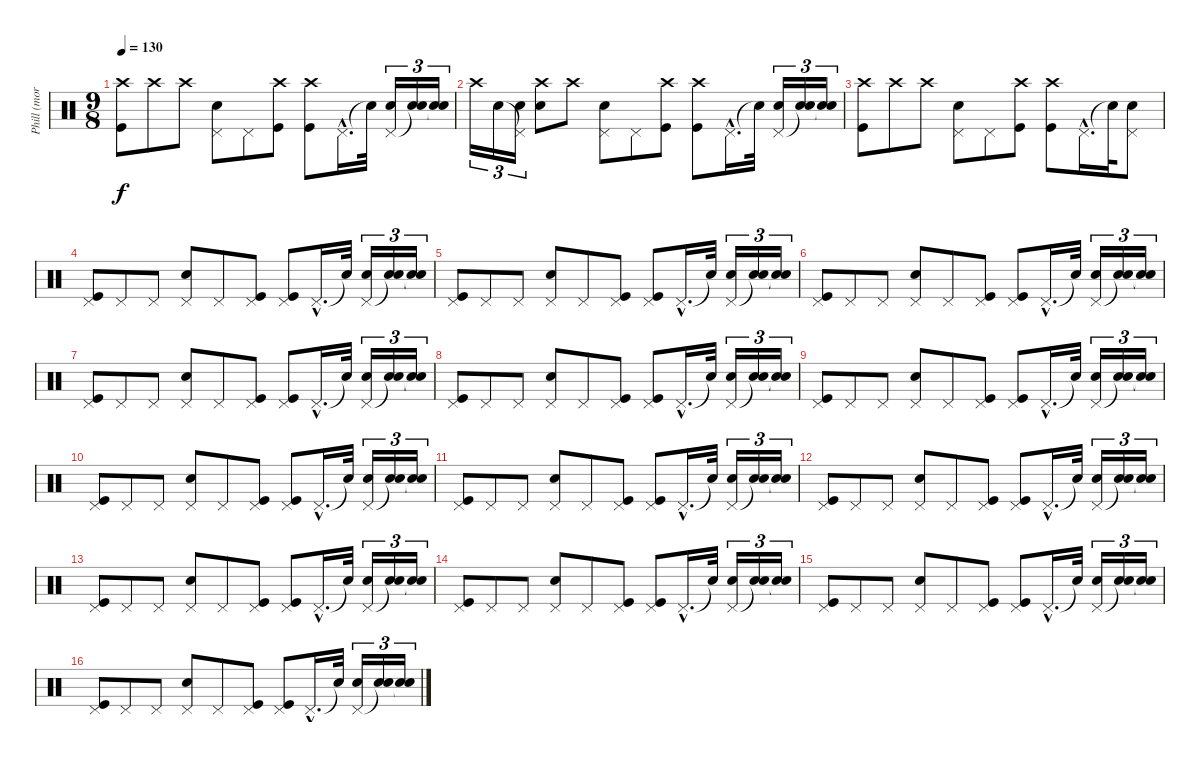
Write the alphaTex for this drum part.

\track ("Phill (mornig bell)" "Phill (mor") {instrument percussion}
\staff {score}
\articulation defaults
\ts (9 8)
\tempo 130
\clef neutral
\ks c
("Crash high (hit)" "Kick (hit)").8{dy f} "Crash high (hit)".8 "Crash high (hit)".8 ("Pedal Hi-Hat (hit)" "Snare (hit) 2").8 "Pedal Hi-Hat (hit)".8 ("Crash high (hit)" "Kick (hit)").8 ("Crash high (hit)" "Kick (hit)").8 "Pedal Hi-Hat (hit)"{hac}.16{d} "Snare (hit)"{t}.32 ("Pedal Hi-Hat (hit)" "Snare (hit) 2").16{tu (3 2)} ("Snare (hit)"{t} "Snare (hit) 2").16{tu (3 2)} ("Snare (hit)"{t} "Snare (hit) 2").16{tu (3 2)} |
"Crash high (hit)".16{tu (3 2)} "Snare (hit) 2".16{tu (3 2)} ("Pedal Hi-Hat (hit)"{t} "Snare (hit) 2").16{tu (3 2)} ("Crash high (hit)" "Snare (hit) 2").8 "Crash high (hit)".8 ("Pedal Hi-Hat (hit)" "Snare (hit) 2").8 "Pedal Hi-Hat (hit)".8 ("Crash high (hit)" "Kick (hit)").8 ("Crash high (hit)" "Kick (hit)").8 "Pedal Hi-Hat (hit)"{hac}.16{d} "Snare (hit)"{t}.32 ("Pedal Hi-Hat (hit)" "Snare (hit) 2").16{tu (3 2)} ("Snare (hit)"{t} "Snare (hit) 2").16{tu (3 2)} ("Snare (hit)"{t} "Snare (hit) 2").16{tu (3 2)} |
("Crash high (hit)" "Kick (hit)").8 "Crash high (hit)".8 "Crash high (hit)".8 ("Pedal Hi-Hat (hit)" "Snare (hit) 2").8 "Pedal Hi-Hat (hit)".8 ("Crash high (hit)" "Kick (hit)").8 ("Crash high (hit)" "Kick (hit)").8 "Pedal Hi-Hat (hit)"{hac}.16{d} "Snare (hit)"{t}.32 ("Pedal Hi-Hat (hit)" "Snare (hit) 2").8 |
("Pedal Hi-Hat (hit)" "Kick (hit)").8 "Pedal Hi-Hat (hit)".8 "Pedal Hi-Hat (hit)".8 ("Pedal Hi-Hat (hit)" "Snare (hit) 2").8 "Pedal Hi-Hat (hit)".8 ("Pedal Hi-Hat (hit)" "Kick (hit)").8 ("Pedal Hi-Hat (hit)" "Kick (hit)").8 "Pedal Hi-Hat (hit)"{hac}.16{d} "Snare (hit)"{t}.32 ("Pedal Hi-Hat (hit)" "Snare (hit) 2").16{tu (3 2)} ("Snare (hit)"{t} "Snare (hit) 2").16{tu (3 2)} ("Snare (hit)"{t} "Snare (hit) 2").16{tu (3 2)} |
("Pedal Hi-Hat (hit)" "Kick (hit)").8 "Pedal Hi-Hat (hit)".8 "Pedal Hi-Hat (hit)".8 ("Pedal Hi-Hat (hit)" "Snare (hit) 2").8 "Pedal Hi-Hat (hit)".8 ("Pedal Hi-Hat (hit)" "Kick (hit)").8 ("Pedal Hi-Hat (hit)" "Kick (hit)").8 "Pedal Hi-Hat (hit)"{hac}.16{d} "Snare (hit)"{t}.32 ("Pedal Hi-Hat (hit)" "Snare (hit) 2").16{tu (3 2)} ("Snare (hit)"{t} "Snare (hit) 2").16{tu (3 2)} ("Snare (hit)"{t} "Snare (hit) 2").16{tu (3 2)} |
("Pedal Hi-Hat (hit)" "Kick (hit)").8 "Pedal Hi-Hat (hit)".8 "Pedal Hi-Hat (hit)".8 ("Pedal Hi-Hat (hit)" "Snare (hit) 2").8 "Pedal Hi-Hat (hit)".8 ("Pedal Hi-Hat (hit)" "Kick (hit)").8 ("Pedal Hi-Hat (hit)" "Kick (hit)").8 "Pedal Hi-Hat (hit)"{hac}.16{d} "Snare (hit)"{t}.32 ("Pedal Hi-Hat (hit)" "Snare (hit) 2").16{tu (3 2)} ("Snare (hit)"{t} "Snare (hit) 2").16{tu (3 2)} ("Snare (hit)"{t} "Snare (hit) 2").16{tu (3 2)} |
("Pedal Hi-Hat (hit)" "Kick (hit)").8 "Pedal Hi-Hat (hit)".8 "Pedal Hi-Hat (hit)".8 ("Pedal Hi-Hat (hit)" "Snare (hit) 2").8 "Pedal Hi-Hat (hit)".8 ("Pedal Hi-Hat (hit)" "Kick (hit)").8 ("Pedal Hi-Hat (hit)" "Kick (hit)").8 "Pedal Hi-Hat (hit)"{hac}.16{d} "Snare (hit)"{t}.32 ("Pedal Hi-Hat (hit)" "Snare (hit) 2").16{tu (3 2)} ("Snare (hit)"{t} "Snare (hit) 2").16{tu (3 2)} ("Snare (hit)"{t} "Snare (hit) 2").16{tu (3 2)} |
("Pedal Hi-Hat (hit)" "Kick (hit)").8 "Pedal Hi-Hat (hit)".8 "Pedal Hi-Hat (hit)".8 ("Pedal Hi-Hat (hit)" "Snare (hit) 2").8 "Pedal Hi-Hat (hit)".8 ("Pedal Hi-Hat (hit)" "Kick (hit)").8 ("Pedal Hi-Hat (hit)" "Kick (hit)").8 "Pedal Hi-Hat (hit)"{hac}.16{d} "Snare (hit)"{t}.32 ("Pedal Hi-Hat (hit)" "Snare (hit) 2").16{tu (3 2)} ("Snare (hit)"{t} "Snare (hit) 2").16{tu (3 2)} ("Snare (hit)"{t} "Snare (hit) 2").16{tu (3 2)} |
("Pedal Hi-Hat (hit)" "Kick (hit)").8 "Pedal Hi-Hat (hit)".8 "Pedal Hi-Hat (hit)".8 ("Pedal Hi-Hat (hit)" "Snare (hit) 2").8 "Pedal Hi-Hat (hit)".8 ("Pedal Hi-Hat (hit)" "Kick (hit)").8 ("Pedal Hi-Hat (hit)" "Kick (hit)").8 "Pedal Hi-Hat (hit)"{hac}.16{d} "Snare (hit)"{t}.32 ("Pedal Hi-Hat (hit)" "Snare (hit) 2").16{tu (3 2)} ("Snare (hit)"{t} "Snare (hit) 2").16{tu (3 2)} ("Snare (hit)"{t} "Snare (hit) 2").16{tu (3 2)} |
("Pedal Hi-Hat (hit)" "Kick (hit)").8 "Pedal Hi-Hat (hit)".8 "Pedal Hi-Hat (hit)".8 ("Pedal Hi-Hat (hit)" "Snare (hit) 2").8 "Pedal Hi-Hat (hit)".8 ("Pedal Hi-Hat (hit)" "Kick (hit)").8 ("Pedal Hi-Hat (hit)" "Kick (hit)").8 "Pedal Hi-Hat (hit)"{hac}.16{d} "Snare (hit)"{t}.32 ("Pedal Hi-Hat (hit)" "Snare (hit) 2").16{tu (3 2)} ("Snare (hit)"{t} "Snare (hit) 2").16{tu (3 2)} ("Snare (hit)"{t} "Snare (hit) 2").16{tu (3 2)} |
("Pedal Hi-Hat (hit)" "Kick (hit)").8 "Pedal Hi-Hat (hit)".8 "Pedal Hi-Hat (hit)".8 ("Pedal Hi-Hat (hit)" "Snare (hit) 2").8 "Pedal Hi-Hat (hit)".8 ("Pedal Hi-Hat (hit)" "Kick (hit)").8 ("Pedal Hi-Hat (hit)" "Kick (hit)").8 "Pedal Hi-Hat (hit)"{hac}.16{d} "Snare (hit)"{t}.32 ("Pedal Hi-Hat (hit)" "Snare (hit) 2").16{tu (3 2)} ("Snare (hit)"{t} "Snare (hit) 2").16{tu (3 2)} ("Snare (hit)"{t} "Snare (hit) 2").16{tu (3 2)} |
("Pedal Hi-Hat (hit)" "Kick (hit)").8 "Pedal Hi-Hat (hit)".8 "Pedal Hi-Hat (hit)".8 ("Pedal Hi-Hat (hit)" "Snare (hit) 2").8 "Pedal Hi-Hat (hit)".8 ("Pedal Hi-Hat (hit)" "Kick (hit)").8 ("Pedal Hi-Hat (hit)" "Kick (hit)").8 "Pedal Hi-Hat (hit)"{hac}.16{d} "Snare (hit)"{t}.32 ("Pedal Hi-Hat (hit)" "Snare (hit) 2").16{tu (3 2)} ("Snare (hit)"{t} "Snare (hit) 2").16{tu (3 2)} ("Snare (hit)"{t} "Snare (hit) 2").16{tu (3 2)} |
("Pedal Hi-Hat (hit)" "Kick (hit)").8 "Pedal Hi-Hat (hit)".8 "Pedal Hi-Hat (hit)".8 ("Pedal Hi-Hat (hit)" "Snare (hit) 2").8 "Pedal Hi-Hat (hit)".8 ("Pedal Hi-Hat (hit)" "Kick (hit)").8 ("Pedal Hi-Hat (hit)" "Kick (hit)").8 "Pedal Hi-Hat (hit)"{hac}.16{d} "Snare (hit)"{t}.32 ("Pedal Hi-Hat (hit)" "Snare (hit) 2").16{tu (3 2)} ("Snare (hit)"{t} "Snare (hit) 2").16{tu (3 2)} ("Snare (hit)"{t} "Snare (hit) 2").16{tu (3 2)} |
("Pedal Hi-Hat (hit)" "Kick (hit)").8 "Pedal Hi-Hat (hit)".8 "Pedal Hi-Hat (hit)".8 ("Pedal Hi-Hat (hit)" "Snare (hit) 2").8 "Pedal Hi-Hat (hit)".8 ("Pedal Hi-Hat (hit)" "Kick (hit)").8 ("Pedal Hi-Hat (hit)" "Kick (hit)").8 "Pedal Hi-Hat (hit)"{hac}.16{d} "Snare (hit)"{t}.32 ("Pedal Hi-Hat (hit)" "Snare (hit) 2").16{tu (3 2)} ("Snare (hit)"{t} "Snare (hit) 2").16{tu (3 2)} ("Snare (hit)"{t} "Snare (hit) 2").16{tu (3 2)} |
("Pedal Hi-Hat (hit)" "Kick (hit)").8 "Pedal Hi-Hat (hit)".8 "Pedal Hi-Hat (hit)".8 ("Pedal Hi-Hat (hit)" "Snare (hit) 2").8 "Pedal Hi-Hat (hit)".8 ("Pedal Hi-Hat (hit)" "Kick (hit)").8 ("Pedal Hi-Hat (hit)" "Kick (hit)").8 "Pedal Hi-Hat (hit)"{hac}.16{d} "Snare (hit)"{t}.32 ("Pedal Hi-Hat (hit)" "Snare (hit) 2").16{tu (3 2)} ("Snare (hit)"{t} "Snare (hit) 2").16{tu (3 2)} ("Snare (hit)"{t} "Snare (hit) 2").16{tu (3 2)} |
("Pedal Hi-Hat (hit)" "Kick (hit)").8 "Pedal Hi-Hat (hit)".8 "Pedal Hi-Hat (hit)".8 ("Pedal Hi-Hat (hit)" "Snare (hit) 2").8 "Pedal Hi-Hat (hit)".8 ("Pedal Hi-Hat (hit)" "Kick (hit)").8 ("Pedal Hi-Hat (hit)" "Kick (hit)").8 "Pedal Hi-Hat (hit)"{hac}.16{d} "Snare (hit)"{t}.32 ("Pedal Hi-Hat (hit)" "Snare (hit) 2").16{tu (3 2)} ("Snare (hit)"{t} "Snare (hit) 2").16{tu (3 2)} ("Snare (hit)"{t} "Snare (hit) 2").16{tu (3 2)}
